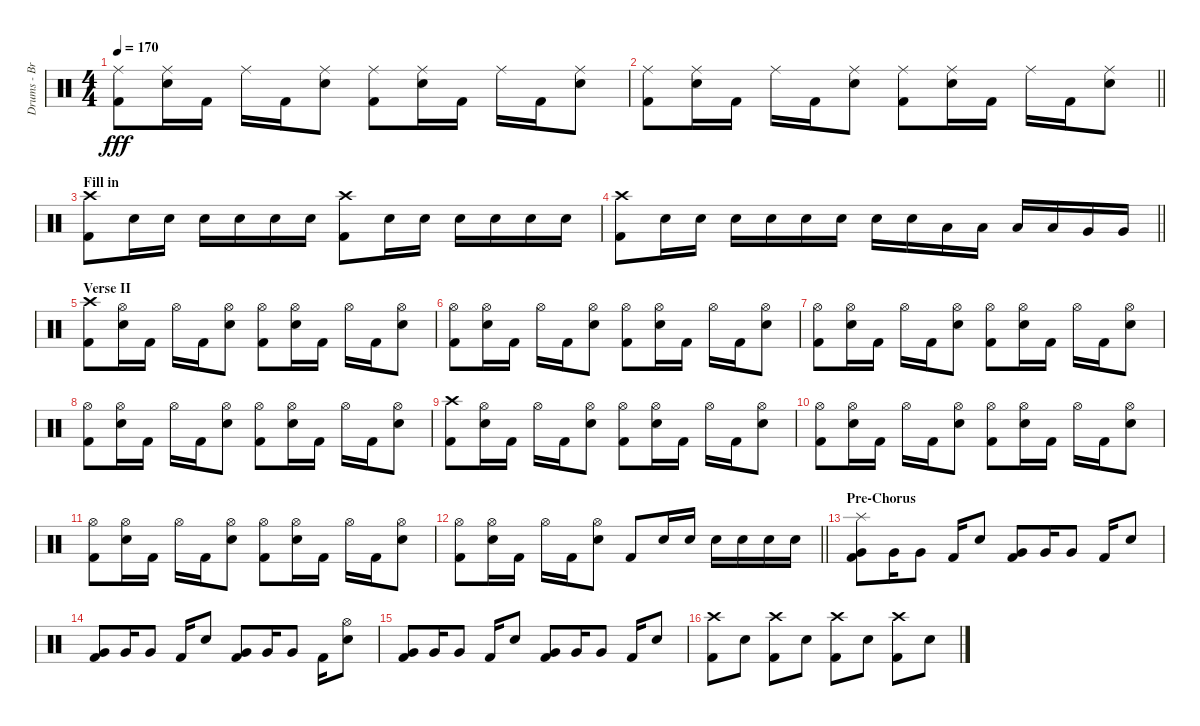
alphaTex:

\track ("Drums - Brandon" "Drums - Br") {instrument percussion}
\staff {score}
\articulation defaults
\ts (4 4)
\tempo 170
\clef neutral
\ks c
("Ride (middle)" "Kick (hit) 2").8{dy fff} ("Ride (middle)" "Electric Snare (hit)").16 "Kick (hit) 2".16 "Ride (middle)".16 "Kick (hit) 2".16 ("Ride (middle)" "Electric Snare (hit)").8 ("Ride (middle)" "Kick (hit) 2").8 ("Ride (middle)" "Electric Snare (hit)").16 "Kick (hit) 2".16 "Ride (middle)".16 "Kick (hit) 2".16 ("Ride (middle)" "Electric Snare (hit)").8 |
\barLineRight lightlight
("Ride (middle)" "Kick (hit) 2").8 ("Ride (middle)" "Electric Snare (hit)").16 "Kick (hit) 2".16 "Ride (middle)".16 "Kick (hit) 2".16 ("Ride (middle)" "Electric Snare (hit)").8 ("Ride (middle)" "Kick (hit) 2").8 ("Ride (middle)" "Electric Snare (hit)").16 "Kick (hit) 2".16 "Ride (middle)".16 "Kick (hit) 2".16 ("Ride (middle)" "Electric Snare (hit)").8 |
\section ("" "Fill in")
("Crash high (hit)" "Kick (hit) 2").8 "Electric Snare (hit)".16 "Electric Snare (hit)".16 "Electric Snare (hit)".16 "Electric Snare (hit)".16 "Electric Snare (hit)".16 "Electric Snare (hit)".16 ("Crash high (hit)" "Kick (hit) 2").8 "Electric Snare (hit)".16 "Electric Snare (hit)".16 "Electric Snare (hit)".16 "Electric Snare (hit)".16 "Electric Snare (hit)".16 "Electric Snare (hit)".16 |
\barLineRight lightlight
("Crash high (hit)" "Kick (hit) 2").8 "Electric Snare (hit)".16 "Electric Snare (hit)".16 "Electric Snare (hit)".16 "Electric Snare (hit)".16 "Electric Snare (hit)".16 "Electric Snare (hit)".16 "Electric Snare (hit)".16 "Electric Snare (hit)".16 "Low Tom (hit)".16 "Low Tom (hit)".16 "Low Tom (hit)".16 "Low Tom (hit)".16 "Very Low Tom (hit)".16 "Very Low Tom (hit)".16 |
\section ("" "Verse II")
("Crash high (hit)" "Kick (hit) 2").8 ("Hi-Hat (open)" "Electric Snare (hit)").16 "Kick (hit) 2".16 "Hi-Hat (open)".16 "Kick (hit) 2".16 ("Hi-Hat (open)" "Electric Snare (hit)").8 ("Hi-Hat (open)" "Kick (hit) 2").8 ("Hi-Hat (open)" "Electric Snare (hit)").16 "Kick (hit) 2".16 "Hi-Hat (open)".16 "Kick (hit) 2".16 ("Hi-Hat (open)" "Electric Snare (hit)").8 |
("Hi-Hat (open)" "Kick (hit) 2").8 ("Hi-Hat (open)" "Electric Snare (hit)").16 "Kick (hit) 2".16 "Hi-Hat (open)".16 "Kick (hit) 2".16 ("Hi-Hat (open)" "Electric Snare (hit)").8 ("Hi-Hat (open)" "Kick (hit) 2").8 ("Hi-Hat (open)" "Electric Snare (hit)").16 "Kick (hit) 2".16 "Hi-Hat (open)".16 "Kick (hit) 2".16 ("Hi-Hat (open)" "Electric Snare (hit)").8 |
("Hi-Hat (open)" "Kick (hit) 2").8 ("Hi-Hat (open)" "Electric Snare (hit)").16 "Kick (hit) 2".16 "Hi-Hat (open)".16 "Kick (hit) 2".16 ("Hi-Hat (open)" "Electric Snare (hit)").8 ("Hi-Hat (open)" "Kick (hit) 2").8 ("Hi-Hat (open)" "Electric Snare (hit)").16 "Kick (hit) 2".16 "Hi-Hat (open)".16 "Kick (hit) 2".16 ("Hi-Hat (open)" "Electric Snare (hit)").8 |
("Hi-Hat (open)" "Kick (hit) 2").8 ("Hi-Hat (open)" "Electric Snare (hit)").16 "Kick (hit) 2".16 "Hi-Hat (open)".16 "Kick (hit) 2".16 ("Hi-Hat (open)" "Electric Snare (hit)").8 ("Hi-Hat (open)" "Kick (hit) 2").8 ("Hi-Hat (open)" "Electric Snare (hit)").16 "Kick (hit) 2".16 "Hi-Hat (open)".16 "Kick (hit) 2".16 ("Hi-Hat (open)" "Electric Snare (hit)").8 |
("Crash high (hit)" "Kick (hit) 2").8 ("Hi-Hat (open)" "Electric Snare (hit)").16 "Kick (hit) 2".16 "Hi-Hat (open)".16 "Kick (hit) 2".16 ("Hi-Hat (open)" "Electric Snare (hit)").8 ("Hi-Hat (open)" "Kick (hit) 2").8 ("Hi-Hat (open)" "Electric Snare (hit)").16 "Kick (hit) 2".16 "Hi-Hat (open)".16 "Kick (hit) 2".16 ("Hi-Hat (open)" "Electric Snare (hit)").8 |
("Hi-Hat (open)" "Kick (hit) 2").8 ("Hi-Hat (open)" "Electric Snare (hit)").16 "Kick (hit) 2".16 "Hi-Hat (open)".16 "Kick (hit) 2".16 ("Hi-Hat (open)" "Electric Snare (hit)").8 ("Hi-Hat (open)" "Kick (hit) 2").8 ("Hi-Hat (open)" "Electric Snare (hit)").16 "Kick (hit) 2".16 "Hi-Hat (open)".16 "Kick (hit) 2".16 ("Hi-Hat (open)" "Electric Snare (hit)").8 |
("Hi-Hat (open)" "Kick (hit) 2").8 ("Hi-Hat (open)" "Electric Snare (hit)").16 "Kick (hit) 2".16 "Hi-Hat (open)".16 "Kick (hit) 2".16 ("Hi-Hat (open)" "Electric Snare (hit)").8 ("Hi-Hat (open)" "Kick (hit) 2").8 ("Hi-Hat (open)" "Electric Snare (hit)").16 "Kick (hit) 2".16 "Hi-Hat (open)".16 "Kick (hit) 2".16 ("Hi-Hat (open)" "Electric Snare (hit)").8 |
\barLineRight lightlight
("Hi-Hat (open)" "Kick (hit) 2").8 ("Hi-Hat (open)" "Electric Snare (hit)").16 "Kick (hit) 2".16 "Hi-Hat (open)".16 "Kick (hit) 2".16 ("Hi-Hat (open)" "Electric Snare (hit)").8 "Kick (hit) 2".8 "Electric Snare (hit)".16 "Electric Snare (hit)".16 "Electric Snare (hit)".16 "Electric Snare (hit)".16 "Electric Snare (hit)".16 "Electric Snare (hit)".16 |
\section ("" "Pre-Chorus")
("Splash (hit)" "Very Low Tom (hit)" "Kick (hit) 2").8 "Very Low Tom (hit)".16 "Very Low Tom (hit)".8 "Kick (hit) 2".16 "Electric Snare (hit)".8 ("Very Low Tom (hit)" "Kick (hit) 2").8 "Very Low Tom (hit)".16 "Very Low Tom (hit)".8 "Kick (hit) 2".16 "Electric Snare (hit)".8 |
("Very Low Tom (hit)" "Kick (hit) 2").8 "Very Low Tom (hit)".16 "Very Low Tom (hit)".8 "Kick (hit) 2".16 "Electric Snare (hit)".8 ("Very Low Tom (hit)" "Kick (hit) 2").8 "Very Low Tom (hit)".16 "Very Low Tom (hit)".8 "Kick (hit) 2".16 ("Hi-Hat (open)" "Electric Snare (hit)").8 |
("Very Low Tom (hit)" "Kick (hit) 2").8 "Very Low Tom (hit)".16 "Very Low Tom (hit)".8 "Kick (hit) 2".16 "Electric Snare (hit)".8 ("Very Low Tom (hit)" "Kick (hit) 2").8 "Very Low Tom (hit)".16 "Very Low Tom (hit)".8 "Kick (hit) 2".16 "Electric Snare (hit)".8 |
("Crash high (hit)" "Kick (hit) 2").8 "Electric Snare (hit)".8 ("Crash high (hit)" "Kick (hit) 2").8 "Electric Snare (hit)".8 ("Crash high (hit)" "Kick (hit) 2").8 "Electric Snare (hit)".8 ("Crash high (hit)" "Kick (hit) 2").8 "Electric Snare (hit)".8
